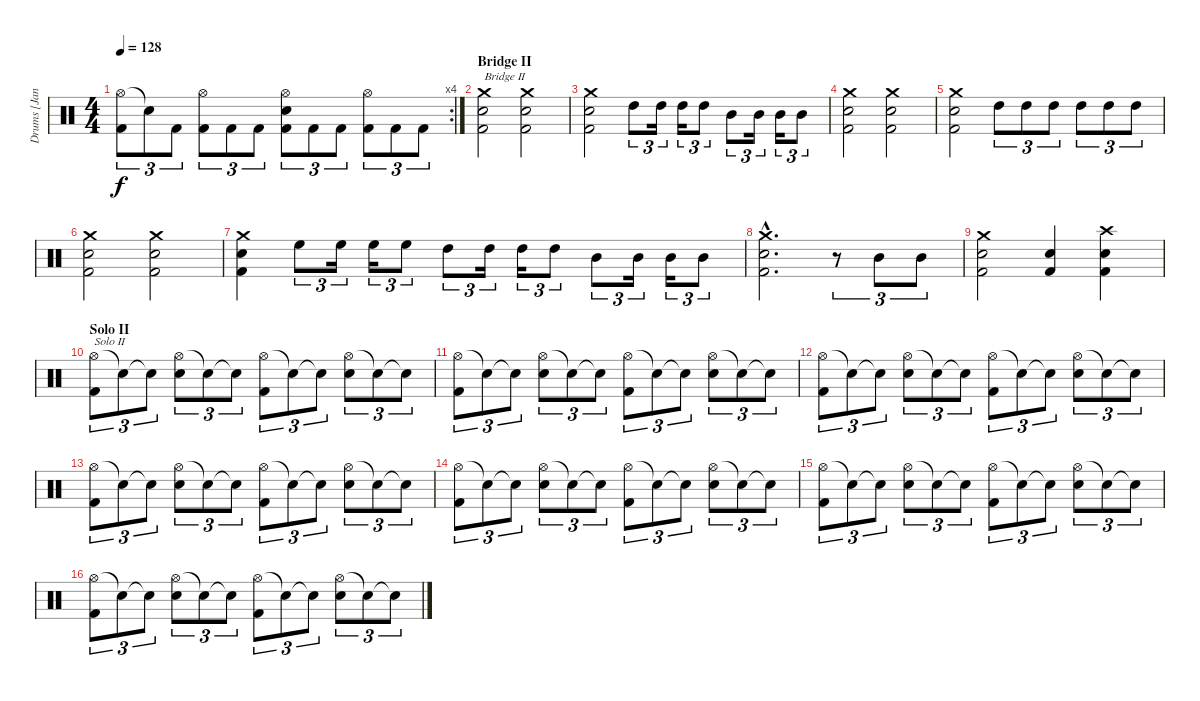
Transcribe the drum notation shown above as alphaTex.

\track ("Drums [Janne Saarenpaa]" "Drums [Jan") {instrument percussion}
\staff {score}
\articulation defaults
\rc 4
\ts (4 4)
\tempo 128
\clef neutral
\ks c
("Hi-Hat (open)" "Kick (hit) 2").8{tu (3 2) dy f} "Snare (hit)"{t}.8{tu (3 2)} "Kick (hit) 2".8{tu (3 2)} ("Hi-Hat (open)" "Kick (hit) 2").8{tu (3 2)} "Kick (hit) 2".8{tu (3 2)} "Kick (hit) 2".8{tu (3 2)} ("Hi-Hat (open)" "Electric Snare (hit)" "Kick (hit) 2").8{tu (3 2)} "Kick (hit) 2".8{tu (3 2)} "Kick (hit) 2".8{tu (3 2)} ("Hi-Hat (open)" "Kick (hit) 2").8{tu (3 2)} "Kick (hit) 2".8{tu (3 2)} "Kick (hit) 2".8{tu (3 2)} |
\section ("" "Bridge II")
("Crash medium (hit)" "Electric Snare (hit)" "Kick (hit) 2").2{txt "Bridge II"} ("Crash medium (hit)" "Electric Snare (hit)" "Kick (hit) 2").2 |
("Crash medium (hit)" "Electric Snare (hit)" "Kick (hit) 2").2 "High Tom (hit)".8{tu (3 2)} "High Tom (hit)".16{tu (3 2)} "High Tom (hit)".16{tu (3 2)} "High Tom (hit)".8{tu (3 2)} "Mid Tom (hit)".8{tu (3 2)} "Mid Tom (hit)".16{tu (3 2)} "Mid Tom (hit)".16{tu (3 2)} "Mid Tom (hit)".8{tu (3 2)} |
("Crash medium (hit)" "Electric Snare (hit)" "Kick (hit) 2").2 ("Crash medium (hit)" "Electric Snare (hit)" "Kick (hit) 2").2 |
("Crash medium (hit)" "Electric Snare (hit)" "Kick (hit) 2").2 "High Tom (hit)".8{tu (3 2)} "High Tom (hit)".8{tu (3 2)} "High Tom (hit)".8{tu (3 2)} "High Tom (hit)".8{tu (3 2)} "High Tom (hit)".8{tu (3 2)} "High Tom (hit)".8{tu (3 2)} |
("Crash medium (hit)" "Electric Snare (hit)" "Kick (hit) 2").2 ("Crash medium (hit)" "Electric Snare (hit)" "Kick (hit) 2").2 |
("Crash medium (hit)" "Electric Snare (hit)" "Kick (hit) 2").4 "High Floor Tom (hit)".8{tu (3 2)} "High Floor Tom (hit)".16{tu (3 2)} "High Floor Tom (hit)".16{tu (3 2)} "High Floor Tom (hit)".8{tu (3 2)} "High Tom (hit)".8{tu (3 2)} "High Tom (hit)".16{tu (3 2)} "High Tom (hit)".16{tu (3 2)} "High Tom (hit)".8{tu (3 2)} "Mid Tom (hit)".8{tu (3 2)} "Mid Tom (hit)".16{tu (3 2)} "Mid Tom (hit)".16{tu (3 2)} "Mid Tom (hit)".8{tu (3 2)} |
("Crash medium (hit)"{hac} "Electric Snare (hit)"{hac} "Kick (hit) 2"{hac}).2{d} r.8{tu (3 2)} "Mid Tom (hit)".8{tu (3 2)} "Mid Tom (hit)".8{tu (3 2)} |
("Crash medium (hit)" "Electric Snare (hit)" "Kick (hit) 2").2 ("Electric Snare (hit)" "Kick (hit) 2").4 ("Crash high (hit)" "Electric Snare (hit)" "Kick (hit) 2").4 |
\section ("" "Solo II")
("Hi-Hat (open)" "Kick (hit) 2").8{tu (3 2) txt "Solo II"} "Snare (hit)"{t}.8{tu (3 2)} "Snare (hit)"{t}.8{tu (3 2)} ("Hi-Hat (open)" "Electric Snare (hit)").8{tu (3 2)} "Snare (hit)"{t}.8{tu (3 2)} "Snare (hit)"{t}.8{tu (3 2)} ("Hi-Hat (open)" "Kick (hit) 2").8{tu (3 2)} "Snare (hit)"{t}.8{tu (3 2)} "Snare (hit)"{t}.8{tu (3 2)} ("Hi-Hat (open)" "Electric Snare (hit)").8{tu (3 2)} "Snare (hit)"{t}.8{tu (3 2)} "Snare (hit)"{t}.8{tu (3 2)} |
("Hi-Hat (open)" "Kick (hit) 2").8{tu (3 2)} "Snare (hit)"{t}.8{tu (3 2)} "Snare (hit)"{t}.8{tu (3 2)} ("Hi-Hat (open)" "Electric Snare (hit)").8{tu (3 2)} "Snare (hit)"{t}.8{tu (3 2)} "Snare (hit)"{t}.8{tu (3 2)} ("Hi-Hat (open)" "Kick (hit) 2").8{tu (3 2)} "Snare (hit)"{t}.8{tu (3 2)} "Snare (hit)"{t}.8{tu (3 2)} ("Hi-Hat (open)" "Electric Snare (hit)").8{tu (3 2)} "Snare (hit)"{t}.8{tu (3 2)} "Snare (hit)"{t}.8{tu (3 2)} |
("Hi-Hat (open)" "Kick (hit) 2").8{tu (3 2)} "Snare (hit)"{t}.8{tu (3 2)} "Snare (hit)"{t}.8{tu (3 2)} ("Hi-Hat (open)" "Electric Snare (hit)").8{tu (3 2)} "Snare (hit)"{t}.8{tu (3 2)} "Snare (hit)"{t}.8{tu (3 2)} ("Hi-Hat (open)" "Kick (hit) 2").8{tu (3 2)} "Snare (hit)"{t}.8{tu (3 2)} "Snare (hit)"{t}.8{tu (3 2)} ("Hi-Hat (open)" "Electric Snare (hit)").8{tu (3 2)} "Snare (hit)"{t}.8{tu (3 2)} "Snare (hit)"{t}.8{tu (3 2)} |
("Hi-Hat (open)" "Kick (hit) 2").8{tu (3 2)} "Snare (hit)"{t}.8{tu (3 2)} "Snare (hit)"{t}.8{tu (3 2)} ("Hi-Hat (open)" "Electric Snare (hit)").8{tu (3 2)} "Snare (hit)"{t}.8{tu (3 2)} "Snare (hit)"{t}.8{tu (3 2)} ("Hi-Hat (open)" "Kick (hit) 2").8{tu (3 2)} "Snare (hit)"{t}.8{tu (3 2)} "Snare (hit)"{t}.8{tu (3 2)} ("Hi-Hat (open)" "Electric Snare (hit)").8{tu (3 2)} "Snare (hit)"{t}.8{tu (3 2)} "Snare (hit)"{t}.8{tu (3 2)} |
("Hi-Hat (open)" "Kick (hit) 2").8{tu (3 2)} "Snare (hit)"{t}.8{tu (3 2)} "Snare (hit)"{t}.8{tu (3 2)} ("Hi-Hat (open)" "Electric Snare (hit)").8{tu (3 2)} "Snare (hit)"{t}.8{tu (3 2)} "Snare (hit)"{t}.8{tu (3 2)} ("Hi-Hat (open)" "Kick (hit) 2").8{tu (3 2)} "Snare (hit)"{t}.8{tu (3 2)} "Snare (hit)"{t}.8{tu (3 2)} ("Hi-Hat (open)" "Electric Snare (hit)").8{tu (3 2)} "Snare (hit)"{t}.8{tu (3 2)} "Snare (hit)"{t}.8{tu (3 2)} |
("Hi-Hat (open)" "Kick (hit) 2").8{tu (3 2)} "Snare (hit)"{t}.8{tu (3 2)} "Snare (hit)"{t}.8{tu (3 2)} ("Hi-Hat (open)" "Electric Snare (hit)").8{tu (3 2)} "Snare (hit)"{t}.8{tu (3 2)} "Snare (hit)"{t}.8{tu (3 2)} ("Hi-Hat (open)" "Kick (hit) 2").8{tu (3 2)} "Snare (hit)"{t}.8{tu (3 2)} "Snare (hit)"{t}.8{tu (3 2)} ("Hi-Hat (open)" "Electric Snare (hit)").8{tu (3 2)} "Snare (hit)"{t}.8{tu (3 2)} "Snare (hit)"{t}.8{tu (3 2)} |
("Hi-Hat (open)" "Kick (hit) 2").8{tu (3 2)} "Snare (hit)"{t}.8{tu (3 2)} "Snare (hit)"{t}.8{tu (3 2)} ("Hi-Hat (open)" "Electric Snare (hit)").8{tu (3 2)} "Snare (hit)"{t}.8{tu (3 2)} "Snare (hit)"{t}.8{tu (3 2)} ("Hi-Hat (open)" "Kick (hit) 2").8{tu (3 2)} "Snare (hit)"{t}.8{tu (3 2)} "Snare (hit)"{t}.8{tu (3 2)} ("Hi-Hat (open)" "Electric Snare (hit)").8{tu (3 2)} "Snare (hit)"{t}.8{tu (3 2)} "Snare (hit)"{t}.8{tu (3 2)}
